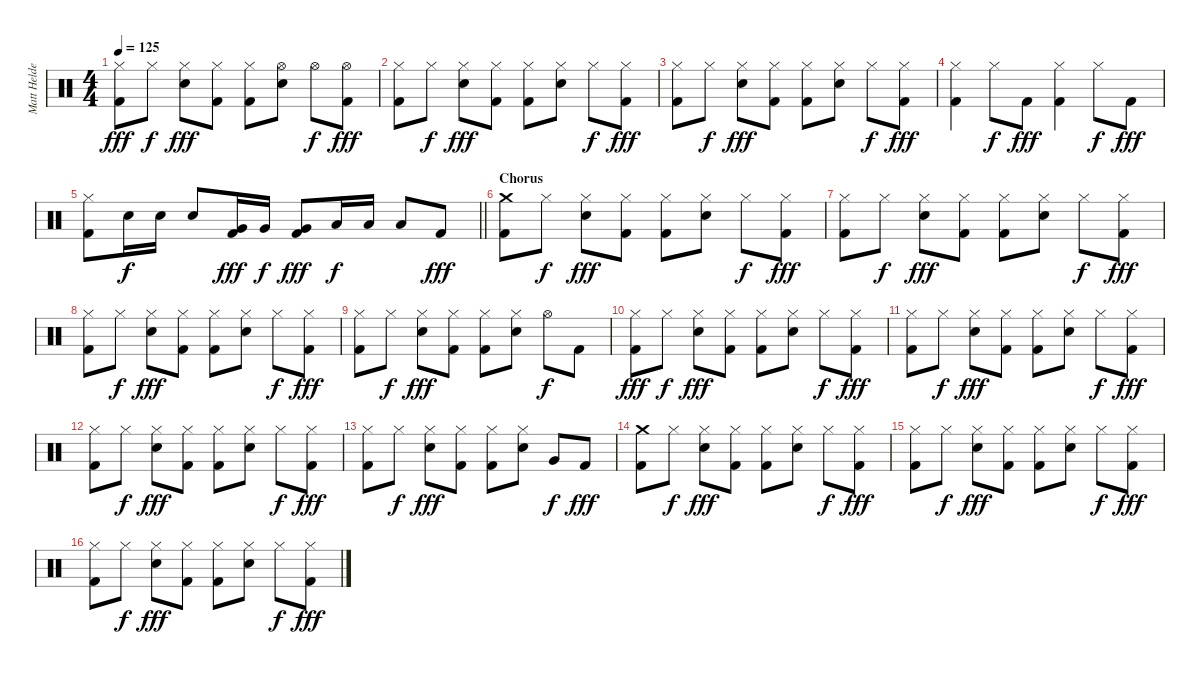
\track ("Matt Helders" "Matt Helde") {instrument percussion}
\staff {score}
\articulation defaults
\ts (4 4)
\tempo 125
\clef neutral
\ks c
("Hi-Hat (closed)" "Kick (hit) 2").8{dy fff} "Hi-Hat (closed)".8{dy f} ("Hi-Hat (closed)" "Electric Snare (hit)").8{dy fff} ("Hi-Hat (closed)" "Kick (hit) 2").8 ("Hi-Hat (closed)" "Kick (hit) 2").8 ("Hi-Hat (open)" "Electric Snare (hit)").8 "Hi-Hat (open)".8{dy f} ("Hi-Hat (open)" "Kick (hit) 2").8{dy fff} |
("Hi-Hat (closed)" "Kick (hit) 2").8 "Hi-Hat (closed)".8{dy f} ("Hi-Hat (closed)" "Electric Snare (hit)").8{dy fff} ("Hi-Hat (closed)" "Kick (hit) 2").8 ("Hi-Hat (closed)" "Kick (hit) 2").8 ("Hi-Hat (closed)" "Electric Snare (hit)").8 "Hi-Hat (closed)".8{dy f} ("Hi-Hat (closed)" "Kick (hit) 2").8{dy fff} |
("Hi-Hat (closed)" "Kick (hit) 2").8 "Hi-Hat (closed)".8{dy f} ("Hi-Hat (closed)" "Electric Snare (hit)").8{dy fff} ("Hi-Hat (closed)" "Kick (hit) 2").8 ("Hi-Hat (closed)" "Kick (hit) 2").8 ("Hi-Hat (closed)" "Electric Snare (hit)").8 "Hi-Hat (closed)".8{dy f} ("Hi-Hat (closed)" "Kick (hit) 2").8{dy fff} |
("Hi-Hat (closed)" "Kick (hit) 2").4 "Hi-Hat (closed)".8{dy f} "Kick (hit) 2".8{dy fff} ("Hi-Hat (closed)" "Kick (hit) 2").4 "Hi-Hat (closed)".8{dy f} "Kick (hit) 2".8{dy fff} |
\barLineRight lightlight
("Hi-Hat (closed)" "Kick (hit) 2").8 "Electric Snare (hit)".16{dy f} "Electric Snare (hit)".16 "Electric Snare (hit)".8 ("Very Low Tom (hit)" "Kick (hit) 2").16{dy fff} "Very Low Tom (hit)".16{dy f} ("Very Low Tom (hit)" "Kick (hit) 2").8{dy fff} "Low Floor Tom (hit)".16{dy f} "Low Floor Tom (hit)".16 "Low Floor Tom (hit)".8 "Kick (hit) 2".8{dy fff} |
\section ("" "Chorus")
("Crash medium (hit)" "Kick (hit) 2").8 "Hi-Hat (closed)".8{dy f} ("Hi-Hat (closed)" "Electric Snare (hit)").8{dy fff} ("Hi-Hat (closed)" "Kick (hit) 2").8 ("Hi-Hat (closed)" "Kick (hit) 2").8 ("Hi-Hat (closed)" "Electric Snare (hit)").8 "Hi-Hat (closed)".8{dy f} ("Hi-Hat (closed)" "Kick (hit) 2").8{dy fff} |
("Hi-Hat (closed)" "Kick (hit) 2").8 "Hi-Hat (closed)".8{dy f} ("Hi-Hat (closed)" "Electric Snare (hit)").8{dy fff} ("Hi-Hat (closed)" "Kick (hit) 2").8 ("Hi-Hat (closed)" "Kick (hit) 2").8 ("Hi-Hat (closed)" "Electric Snare (hit)").8 "Hi-Hat (closed)".8{dy f} ("Hi-Hat (closed)" "Kick (hit) 2").8{dy fff} |
("Hi-Hat (closed)" "Kick (hit) 2").8 "Hi-Hat (closed)".8{dy f} ("Hi-Hat (closed)" "Electric Snare (hit)").8{dy fff} ("Hi-Hat (closed)" "Kick (hit) 2").8 ("Hi-Hat (closed)" "Kick (hit) 2").8 ("Hi-Hat (closed)" "Electric Snare (hit)").8 "Hi-Hat (closed)".8{dy f} ("Hi-Hat (closed)" "Kick (hit) 2").8{dy fff} |
("Hi-Hat (closed)" "Kick (hit) 2").8 "Hi-Hat (closed)".8{dy f} ("Hi-Hat (closed)" "Electric Snare (hit)").8{dy fff} ("Hi-Hat (closed)" "Kick (hit) 2").8 ("Hi-Hat (closed)" "Kick (hit) 2").8 ("Hi-Hat (closed)" "Electric Snare (hit)").8 "Hi-Hat (open)".8{dy f} "Kick (hit) 2".8 |
("Hi-Hat (closed)" "Kick (hit) 2").8{dy fff} "Hi-Hat (closed)".8{dy f} ("Hi-Hat (closed)" "Electric Snare (hit)").8{dy fff} ("Hi-Hat (closed)" "Kick (hit) 2").8 ("Hi-Hat (closed)" "Kick (hit) 2").8 ("Hi-Hat (closed)" "Electric Snare (hit)").8 "Hi-Hat (closed)".8{dy f} ("Hi-Hat (closed)" "Kick (hit) 2").8{dy fff} |
("Hi-Hat (closed)" "Kick (hit) 2").8 "Hi-Hat (closed)".8{dy f} ("Hi-Hat (closed)" "Electric Snare (hit)").8{dy fff} ("Hi-Hat (closed)" "Kick (hit) 2").8 ("Hi-Hat (closed)" "Kick (hit) 2").8 ("Hi-Hat (closed)" "Electric Snare (hit)").8 "Hi-Hat (closed)".8{dy f} ("Hi-Hat (closed)" "Kick (hit) 2").8{dy fff} |
("Hi-Hat (closed)" "Kick (hit) 2").8 "Hi-Hat (closed)".8{dy f} ("Hi-Hat (closed)" "Electric Snare (hit)").8{dy fff} ("Hi-Hat (closed)" "Kick (hit) 2").8 ("Hi-Hat (closed)" "Kick (hit) 2").8 ("Hi-Hat (closed)" "Electric Snare (hit)").8 "Hi-Hat (closed)".8{dy f} ("Hi-Hat (closed)" "Kick (hit) 2").8{dy fff} |
("Hi-Hat (closed)" "Kick (hit) 2").8 "Hi-Hat (closed)".8{dy f} ("Hi-Hat (closed)" "Electric Snare (hit)").8{dy fff} ("Hi-Hat (closed)" "Kick (hit) 2").8 ("Hi-Hat (closed)" "Kick (hit) 2").8 ("Hi-Hat (closed)" "Electric Snare (hit)").8 "Very Low Tom (hit)".8{dy f} "Kick (hit) 2".8{dy fff} |
("Crash medium (hit)" "Kick (hit) 2").8 "Hi-Hat (closed)".8{dy f} ("Hi-Hat (closed)" "Electric Snare (hit)").8{dy fff} ("Hi-Hat (closed)" "Kick (hit) 2").8 ("Hi-Hat (closed)" "Kick (hit) 2").8 ("Hi-Hat (closed)" "Electric Snare (hit)").8 "Hi-Hat (closed)".8{dy f} ("Hi-Hat (closed)" "Kick (hit) 2").8{dy fff} |
("Hi-Hat (closed)" "Kick (hit) 2").8 "Hi-Hat (closed)".8{dy f} ("Hi-Hat (closed)" "Electric Snare (hit)").8{dy fff} ("Hi-Hat (closed)" "Kick (hit) 2").8 ("Hi-Hat (closed)" "Kick (hit) 2").8 ("Hi-Hat (closed)" "Electric Snare (hit)").8 "Hi-Hat (closed)".8{dy f} ("Hi-Hat (closed)" "Kick (hit) 2").8{dy fff} |
("Hi-Hat (closed)" "Kick (hit) 2").8 "Hi-Hat (closed)".8{dy f} ("Hi-Hat (closed)" "Electric Snare (hit)").8{dy fff} ("Hi-Hat (closed)" "Kick (hit) 2").8 ("Hi-Hat (closed)" "Kick (hit) 2").8 ("Hi-Hat (closed)" "Electric Snare (hit)").8 "Hi-Hat (closed)".8{dy f} ("Hi-Hat (closed)" "Kick (hit) 2").8{dy fff}
